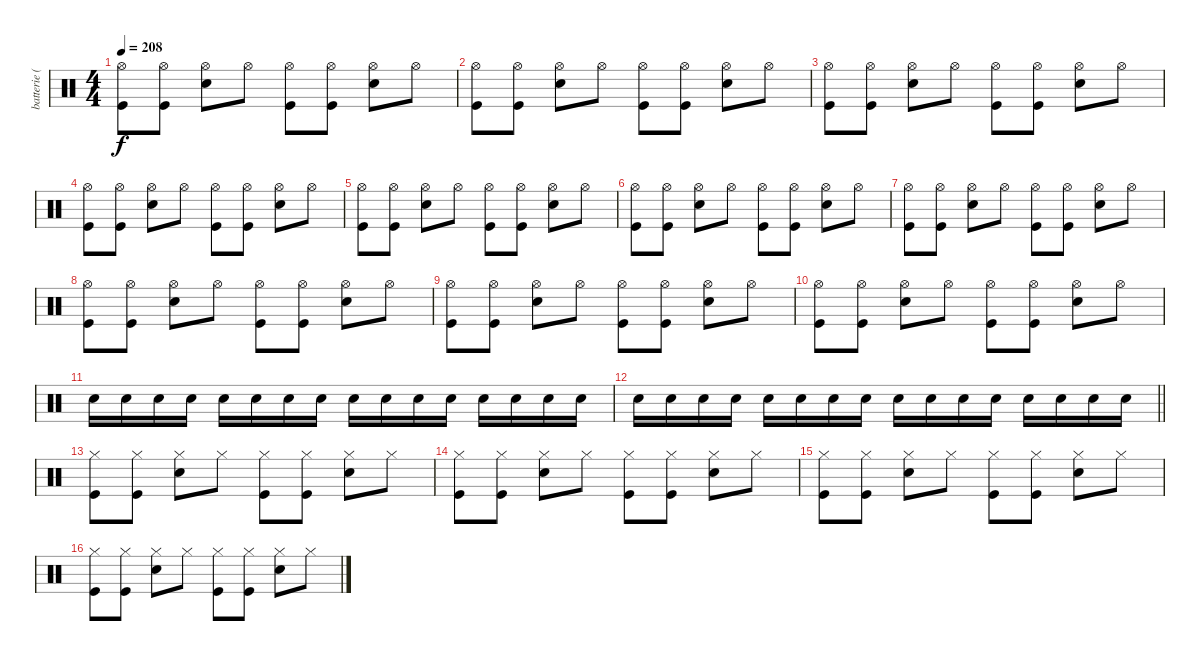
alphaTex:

\track ("batterie ( Guillaume ) " "batterie (") {instrument percussion}
\staff {score}
\articulation defaults
\ts (4 4)
\tempo 208
\clef neutral
\ks c
("Hi-Hat (open)" "Kick (hit)").8{dy f} ("Hi-Hat (open)" "Kick (hit)").8 ("Hi-Hat (open)" "Electric Snare (hit)").8 "Hi-Hat (open)".8 ("Hi-Hat (open)" "Kick (hit)").8 ("Hi-Hat (open)" "Kick (hit)").8 ("Hi-Hat (open)" "Electric Snare (hit)").8 "Hi-Hat (open)".8 |
("Hi-Hat (open)" "Kick (hit)").8 ("Hi-Hat (open)" "Kick (hit)").8 ("Hi-Hat (open)" "Electric Snare (hit)").8 "Hi-Hat (open)".8 ("Hi-Hat (open)" "Kick (hit)").8 ("Hi-Hat (open)" "Kick (hit)").8 ("Hi-Hat (open)" "Electric Snare (hit)").8 "Hi-Hat (open)".8 |
("Hi-Hat (open)" "Kick (hit)").8 ("Hi-Hat (open)" "Kick (hit)").8 ("Hi-Hat (open)" "Electric Snare (hit)").8 "Hi-Hat (open)".8 ("Hi-Hat (open)" "Kick (hit)").8 ("Hi-Hat (open)" "Kick (hit)").8 ("Hi-Hat (open)" "Electric Snare (hit)").8 "Hi-Hat (open)".8 |
("Hi-Hat (open)" "Kick (hit)").8 ("Hi-Hat (open)" "Kick (hit)").8 ("Hi-Hat (open)" "Electric Snare (hit)").8 "Hi-Hat (open)".8 ("Hi-Hat (open)" "Kick (hit)").8 ("Hi-Hat (open)" "Kick (hit)").8 ("Hi-Hat (open)" "Electric Snare (hit)").8 "Hi-Hat (open)".8 |
("Hi-Hat (open)" "Kick (hit)").8 ("Hi-Hat (open)" "Kick (hit)").8 ("Hi-Hat (open)" "Electric Snare (hit)").8 "Hi-Hat (open)".8 ("Hi-Hat (open)" "Kick (hit)").8 ("Hi-Hat (open)" "Kick (hit)").8 ("Hi-Hat (open)" "Electric Snare (hit)").8 "Hi-Hat (open)".8 |
("Hi-Hat (open)" "Kick (hit)").8 ("Hi-Hat (open)" "Kick (hit)").8 ("Hi-Hat (open)" "Electric Snare (hit)").8 "Hi-Hat (open)".8 ("Hi-Hat (open)" "Kick (hit)").8 ("Hi-Hat (open)" "Kick (hit)").8 ("Hi-Hat (open)" "Electric Snare (hit)").8 "Hi-Hat (open)".8 |
("Hi-Hat (open)" "Kick (hit)").8 ("Hi-Hat (open)" "Kick (hit)").8 ("Hi-Hat (open)" "Electric Snare (hit)").8 "Hi-Hat (open)".8 ("Hi-Hat (open)" "Kick (hit)").8 ("Hi-Hat (open)" "Kick (hit)").8 ("Hi-Hat (open)" "Electric Snare (hit)").8 "Hi-Hat (open)".8 |
("Hi-Hat (open)" "Kick (hit)").8 ("Hi-Hat (open)" "Kick (hit)").8 ("Hi-Hat (open)" "Electric Snare (hit)").8 "Hi-Hat (open)".8 ("Hi-Hat (open)" "Kick (hit)").8 ("Hi-Hat (open)" "Kick (hit)").8 ("Hi-Hat (open)" "Electric Snare (hit)").8 "Hi-Hat (open)".8 |
("Hi-Hat (open)" "Kick (hit)").8 ("Hi-Hat (open)" "Kick (hit)").8 ("Hi-Hat (open)" "Electric Snare (hit)").8 "Hi-Hat (open)".8 ("Hi-Hat (open)" "Kick (hit)").8 ("Hi-Hat (open)" "Kick (hit)").8 ("Hi-Hat (open)" "Electric Snare (hit)").8 "Hi-Hat (open)".8 |
("Hi-Hat (open)" "Kick (hit)").8 ("Hi-Hat (open)" "Kick (hit)").8 ("Hi-Hat (open)" "Electric Snare (hit)").8 "Hi-Hat (open)".8 ("Hi-Hat (open)" "Kick (hit)").8 ("Hi-Hat (open)" "Kick (hit)").8 ("Hi-Hat (open)" "Electric Snare (hit)").8 "Hi-Hat (open)".8 |
"Electric Snare (hit)".16 "Electric Snare (hit)".16 "Electric Snare (hit)".16 "Electric Snare (hit)".16 "Electric Snare (hit)".16 "Electric Snare (hit)".16 "Electric Snare (hit)".16 "Electric Snare (hit)".16 "Electric Snare (hit)".16 "Electric Snare (hit)".16 "Electric Snare (hit)".16 "Electric Snare (hit)".16 "Electric Snare (hit)".16 "Electric Snare (hit)".16 "Electric Snare (hit)".16 "Electric Snare (hit)".16 |
\barLineRight lightlight "Electric Snare (hit)".16 "Electric Snare (hit)".16 "Electric Snare (hit)".16 "Electric Snare (hit)".16 "Electric Snare (hit)".16 "Electric Snare (hit)".16 "Electric Snare (hit)".16 "Electric Snare (hit)".16 "Electric Snare (hit)".16 "Electric Snare (hit)".16 "Electric Snare (hit)".16 "Electric Snare (hit)".16 "Electric Snare (hit)".16 "Electric Snare (hit)".16 "Electric Snare (hit)".16 "Electric Snare (hit)".16
|
("Hi-Hat (closed)" "Kick (hit)").8 ("Hi-Hat (closed)" "Kick (hit)").8 ("Hi-Hat (closed)" "Electric Snare (hit)").8 "Hi-Hat (closed)".8 ("Hi-Hat (closed)" "Kick (hit)").8 ("Hi-Hat (closed)" "Kick (hit)").8 ("Hi-Hat (closed)" "Electric Snare (hit)").8 "Hi-Hat (closed)".8 |
("Hi-Hat (closed)" "Kick (hit)").8 ("Hi-Hat (closed)" "Kick (hit)").8 ("Hi-Hat (closed)" "Electric Snare (hit)").8 "Hi-Hat (closed)".8 ("Hi-Hat (closed)" "Kick (hit)").8 ("Hi-Hat (closed)" "Kick (hit)").8 ("Hi-Hat (closed)" "Electric Snare (hit)").8 "Hi-Hat (closed)".8 |
("Hi-Hat (closed)" "Kick (hit)").8 ("Hi-Hat (closed)" "Kick (hit)").8 ("Hi-Hat (closed)" "Electric Snare (hit)").8 "Hi-Hat (closed)".8 ("Hi-Hat (closed)" "Kick (hit)").8 ("Hi-Hat (closed)" "Kick (hit)").8 ("Hi-Hat (closed)" "Electric Snare (hit)").8 "Hi-Hat (closed)".8 |
("Hi-Hat (closed)" "Kick (hit)").8 ("Hi-Hat (closed)" "Kick (hit)").8 ("Hi-Hat (closed)" "Electric Snare (hit)").8 "Hi-Hat (closed)".8 ("Hi-Hat (closed)" "Kick (hit)").8 ("Hi-Hat (closed)" "Kick (hit)").8 ("Hi-Hat (closed)" "Electric Snare (hit)").8 "Hi-Hat (closed)".8
